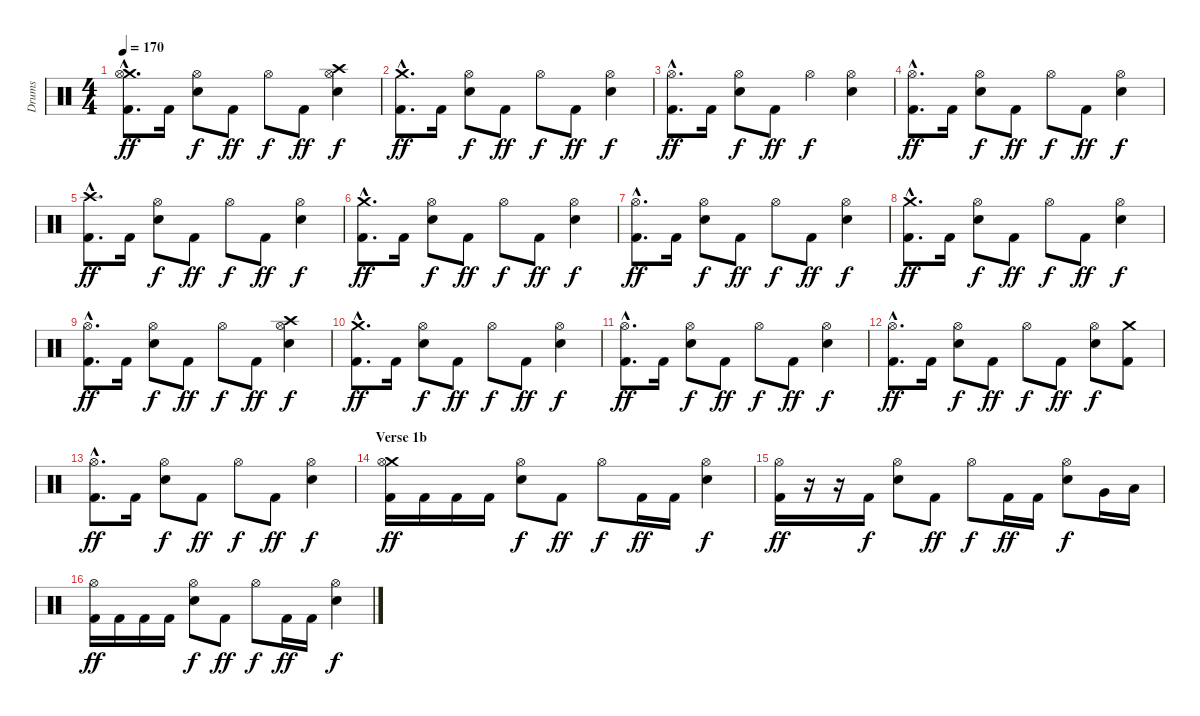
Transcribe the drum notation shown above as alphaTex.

\track ("Drums" "Drums") {instrument percussion}
\staff {score}
\articulation defaults
\ts (4 4)
\tempo 170
\clef neutral
\ks c
("Crash medium (hit)"{hac} "Hi-Hat (open)"{hac} "Kick (hit) 2"{hac}).8{d dy ff} "Kick (hit) 2".16 ("Hi-Hat (open)" "Snare (hit) 2").8{dy f} "Kick (hit) 2".8{dy ff} "Hi-Hat (open)".8{dy f} "Kick (hit) 2".8{dy ff} ("Crash high (hit)" "Hi-Hat (open)" "Snare (hit) 2").4{dy f} |
("Crash medium (hit)"{hac} "Kick (hit) 2"{hac}).8{d dy ff} "Kick (hit) 2".16 ("Hi-Hat (open)" "Snare (hit) 2").8{dy f} "Kick (hit) 2".8{dy ff} "Hi-Hat (open)".8{dy f} "Kick (hit) 2".8{dy ff} ("Hi-Hat (open)" "Snare (hit) 2").4{dy f} |
("Hi-Hat (open)"{hac} "Kick (hit) 2"{hac}).8{d dy ff} "Kick (hit) 2".16 ("Hi-Hat (open)" "Snare (hit) 2").8{dy f} "Kick (hit) 2".8{dy ff} "Hi-Hat (open)".4{dy f} ("Hi-Hat (open)" "Snare (hit) 2").4 |
("Hi-Hat (open)"{hac} "Kick (hit) 2"{hac}).8{d dy ff} "Kick (hit) 2".16 ("Hi-Hat (open)" "Snare (hit) 2").8{dy f} "Kick (hit) 2".8{dy ff} "Hi-Hat (open)".8{dy f} "Kick (hit) 2".8{dy ff} ("Hi-Hat (open)" "Snare (hit) 2").4{dy f} |
("Crash high (hit)"{hac} "Kick (hit) 2"{hac}).8{d dy ff} "Kick (hit) 2".16 ("Hi-Hat (open)" "Snare (hit) 2").8{dy f} "Kick (hit) 2".8{dy ff} "Hi-Hat (open)".8{dy f} "Kick (hit) 2".8{dy ff} ("Hi-Hat (open)" "Snare (hit) 2").4{dy f} |
("Crash medium (hit)"{hac} "Kick (hit) 2"{hac}).8{d dy ff} "Kick (hit) 2".16 ("Hi-Hat (open)" "Snare (hit) 2").8{dy f} "Kick (hit) 2".8{dy ff} "Hi-Hat (open)".8{dy f} "Kick (hit) 2".8{dy ff} ("Hi-Hat (open)" "Snare (hit) 2").4{dy f} |
("Hi-Hat (open)"{hac} "Kick (hit) 2"{hac}).8{d dy ff} "Kick (hit) 2".16 ("Hi-Hat (open)" "Snare (hit) 2").8{dy f} "Kick (hit) 2".8{dy ff} "Hi-Hat (open)".8{dy f} "Kick (hit) 2".8{dy ff} ("Hi-Hat (open)" "Snare (hit) 2").4{dy f} |
("Crash medium (hit)"{hac} "Kick (hit) 2"{hac}).8{d dy ff} "Kick (hit) 2".16 ("Hi-Hat (open)" "Snare (hit) 2").8{dy f} "Kick (hit) 2".8{dy ff} "Hi-Hat (open)".8{dy f} "Kick (hit) 2".8{dy ff} ("Hi-Hat (open)" "Snare (hit) 2").4{dy f} |
("Hi-Hat (open)"{hac} "Kick (hit) 2"{hac}).8{d dy ff} "Kick (hit) 2".16 ("Hi-Hat (open)" "Snare (hit) 2").8{dy f} "Kick (hit) 2".8{dy ff} "Hi-Hat (open)".8{dy f} "Kick (hit) 2".8{dy ff} ("Crash high (hit)" "Hi-Hat (open)" "Snare (hit) 2").4{dy f} |
("Crash medium (hit)"{hac} "Kick (hit) 2"{hac}).8{d dy ff} "Kick (hit) 2".16 ("Hi-Hat (open)" "Snare (hit) 2").8{dy f} "Kick (hit) 2".8{dy ff} "Hi-Hat (open)".8{dy f} "Kick (hit) 2".8{dy ff} ("Hi-Hat (open)" "Snare (hit) 2").4{dy f} |
("Hi-Hat (open)"{hac} "Kick (hit) 2"{hac}).8{d dy ff} "Kick (hit) 2".16 ("Hi-Hat (open)" "Snare (hit) 2").8{dy f} "Kick (hit) 2".8{dy ff} "Hi-Hat (open)".8{dy f} "Kick (hit) 2".8{dy ff} ("Hi-Hat (open)" "Snare (hit) 2").4{dy f} |
("Hi-Hat (open)"{hac} "Kick (hit) 2"{hac}).8{d dy ff} "Kick (hit) 2".16 ("Hi-Hat (open)" "Snare (hit) 2").8{dy f} "Kick (hit) 2".8{dy ff} "Hi-Hat (open)".8{dy f} "Kick (hit) 2".8{dy ff} ("Hi-Hat (open)" "Snare (hit) 2").8{dy f} ("Crash medium (hit)" "Kick (hit) 2").8 |
("Hi-Hat (open)"{hac} "Kick (hit) 2"{hac}).8{d dy ff} "Kick (hit) 2".16 ("Hi-Hat (open)" "Snare (hit) 2").8{dy f} "Kick (hit) 2".8{dy ff} "Hi-Hat (open)".8{dy f} "Kick (hit) 2".8{dy ff} ("Hi-Hat (open)" "Snare (hit) 2").4{dy f} |
\section ("" "Verse 1b")
("Crash medium (hit)" "Hi-Hat (open)" "Kick (hit) 2").16{dy ff} "Kick (hit) 2".16 "Kick (hit) 2".16 "Kick (hit) 2".16 ("Hi-Hat (open)" "Snare (hit) 2").8{dy f} "Kick (hit) 2".8{dy ff} "Hi-Hat (open)".8{dy f} "Kick (hit) 2".16{dy ff} "Kick (hit) 2".16 ("Hi-Hat (open)" "Snare (hit) 2").4{dy f} |
("Hi-Hat (open)" "Kick (hit) 2").16{dy ff} r.16 r.16 "Kick (hit) 2".16{dy f} ("Hi-Hat (open)" "Snare (hit) 2").8 "Kick (hit) 2".8{dy ff} "Hi-Hat (open)".8{dy f} "Kick (hit) 2".16{dy ff} "Kick (hit) 2".16 ("Hi-Hat (open)" "Snare (hit) 2").8{dy f} "Very Low Tom (hit)".16 "Low Floor Tom (hit)".16 |
("Hi-Hat (open)" "Kick (hit) 2").16{dy ff} "Kick (hit) 2".16 "Kick (hit) 2".16 "Kick (hit) 2".16 ("Hi-Hat (open)" "Snare (hit) 2").8{dy f} "Kick (hit) 2".8{dy ff} "Hi-Hat (open)".8{dy f} "Kick (hit) 2".16{dy ff} "Kick (hit) 2".16 ("Hi-Hat (open)" "Snare (hit) 2").4{dy f}
